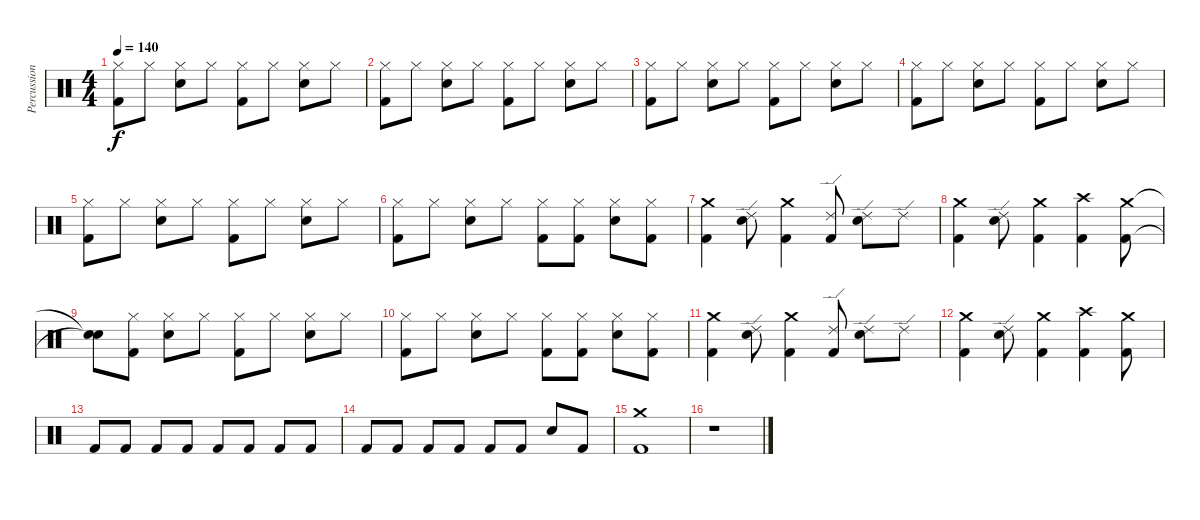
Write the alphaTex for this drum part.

\track ("Percussion" "Percussion") {instrument percussion}
\staff {score}
\articulation defaults
\ts (4 4)
\tempo 140
\clef neutral
\ks c
("Hi-Hat (closed)" "Kick (hit) 2").8{dy f} "Hi-Hat (closed)".8 ("Hi-Hat (closed)" "Electric Snare (hit)").8 "Hi-Hat (closed)".8 ("Hi-Hat (closed)" "Kick (hit) 2").8 "Hi-Hat (closed)".8 ("Hi-Hat (closed)" "Electric Snare (hit)").8 "Hi-Hat (closed)".8 |
("Hi-Hat (closed)" "Kick (hit) 2").8 "Hi-Hat (closed)".8 ("Hi-Hat (closed)" "Electric Snare (hit)").8 "Hi-Hat (closed)".8 ("Hi-Hat (closed)" "Kick (hit) 2").8 "Hi-Hat (closed)".8 ("Hi-Hat (closed)" "Electric Snare (hit)").8 "Hi-Hat (closed)".8 |
("Hi-Hat (closed)" "Kick (hit) 2").8 "Hi-Hat (closed)".8 ("Hi-Hat (closed)" "Electric Snare (hit)").8 "Hi-Hat (closed)".8 ("Hi-Hat (closed)" "Kick (hit) 2").8 "Hi-Hat (closed)".8 ("Hi-Hat (closed)" "Electric Snare (hit)").8 "Hi-Hat (closed)".8 |
("Hi-Hat (closed)" "Kick (hit) 2").8 "Hi-Hat (closed)".8 ("Hi-Hat (closed)" "Electric Snare (hit)").8 "Hi-Hat (closed)".8 ("Hi-Hat (closed)" "Kick (hit) 2").8 "Hi-Hat (closed)".8 ("Hi-Hat (closed)" "Electric Snare (hit)").8 "Hi-Hat (closed)".8 |
("Hi-Hat (closed)" "Kick (hit) 2").8 "Hi-Hat (closed)".8 ("Hi-Hat (closed)" "Electric Snare (hit)").8 "Hi-Hat (closed)".8 ("Hi-Hat (closed)" "Kick (hit) 2").8 "Hi-Hat (closed)".8 ("Hi-Hat (closed)" "Electric Snare (hit)").8 "Hi-Hat (closed)".8 |
("Hi-Hat (closed)" "Kick (hit) 2").8 "Hi-Hat (closed)".8 ("Hi-Hat (closed)" "Electric Snare (hit)").8 "Hi-Hat (closed)".8 ("Hi-Hat (closed)" "Kick (hit) 2").8 ("Hi-Hat (closed)" "Kick (hit) 2").8 ("Hi-Hat (closed)" "Electric Snare (hit)").8 ("Hi-Hat (closed)" "Kick (hit) 2").8 |
("Crash medium (hit)" "Kick (hit) 2").4 ("Ride (edge) 2" "Electric Snare (hit)").8 ("Crash medium (hit)" "Kick (hit) 2").4 ("Ride (edge) 2" "Kick (hit) 2").8 ("Ride (edge) 2" "Electric Snare (hit)").8 "Ride (edge) 2".8 |
("Crash medium (hit)" "Kick (hit) 2").4 ("Ride (edge) 2" "Electric Snare (hit)").8 ("Crash medium (hit)" "Kick (hit) 2").4 ("Crash high (hit)" "Kick (hit) 2").4 ("Crash medium (hit)" "Kick (hit) 2").8 |
("Snare (hit)"{t} "Snare (hit)"{t}).8 ("Hi-Hat (closed)" "Kick (hit) 2").8 ("Hi-Hat (closed)" "Electric Snare (hit)").8 "Hi-Hat (closed)".8 ("Hi-Hat (closed)" "Kick (hit) 2").8 "Hi-Hat (closed)".8 ("Hi-Hat (closed)" "Electric Snare (hit)").8 "Hi-Hat (closed)".8 |
("Hi-Hat (closed)" "Kick (hit) 2").8 "Hi-Hat (closed)".8 ("Hi-Hat (closed)" "Electric Snare (hit)").8 "Hi-Hat (closed)".8 ("Hi-Hat (closed)" "Kick (hit) 2").8 ("Hi-Hat (closed)" "Kick (hit) 2").8 ("Hi-Hat (closed)" "Electric Snare (hit)").8 ("Hi-Hat (closed)" "Kick (hit) 2").8 |
("Crash medium (hit)" "Kick (hit) 2").4 ("Ride (edge) 2" "Electric Snare (hit)").8 ("Crash medium (hit)" "Kick (hit) 2").4 ("Ride (edge) 2" "Kick (hit) 2").8 ("Ride (edge) 2" "Electric Snare (hit)").8 "Ride (edge) 2".8 |
("Crash medium (hit)" "Kick (hit) 2").4 ("Ride (edge) 2" "Electric Snare (hit)").8 ("Crash medium (hit)" "Kick (hit) 2").4 ("Crash high (hit)" "Kick (hit) 2").4 ("Crash medium (hit)" "Kick (hit) 2").8 |
"Kick (hit) 2".8 "Kick (hit) 2".8 "Kick (hit) 2".8 "Kick (hit) 2".8 "Kick (hit) 2".8 "Kick (hit) 2".8 "Kick (hit) 2".8 "Kick (hit) 2".8 |
"Kick (hit) 2".8 "Kick (hit) 2".8 "Kick (hit) 2".8 "Kick (hit) 2".8 "Kick (hit) 2".8 "Kick (hit) 2".8 "Electric Snare (hit)".8 "Kick (hit) 2".8 |
("Crash medium (hit)" "Kick (hit) 2").1 |
r.1
